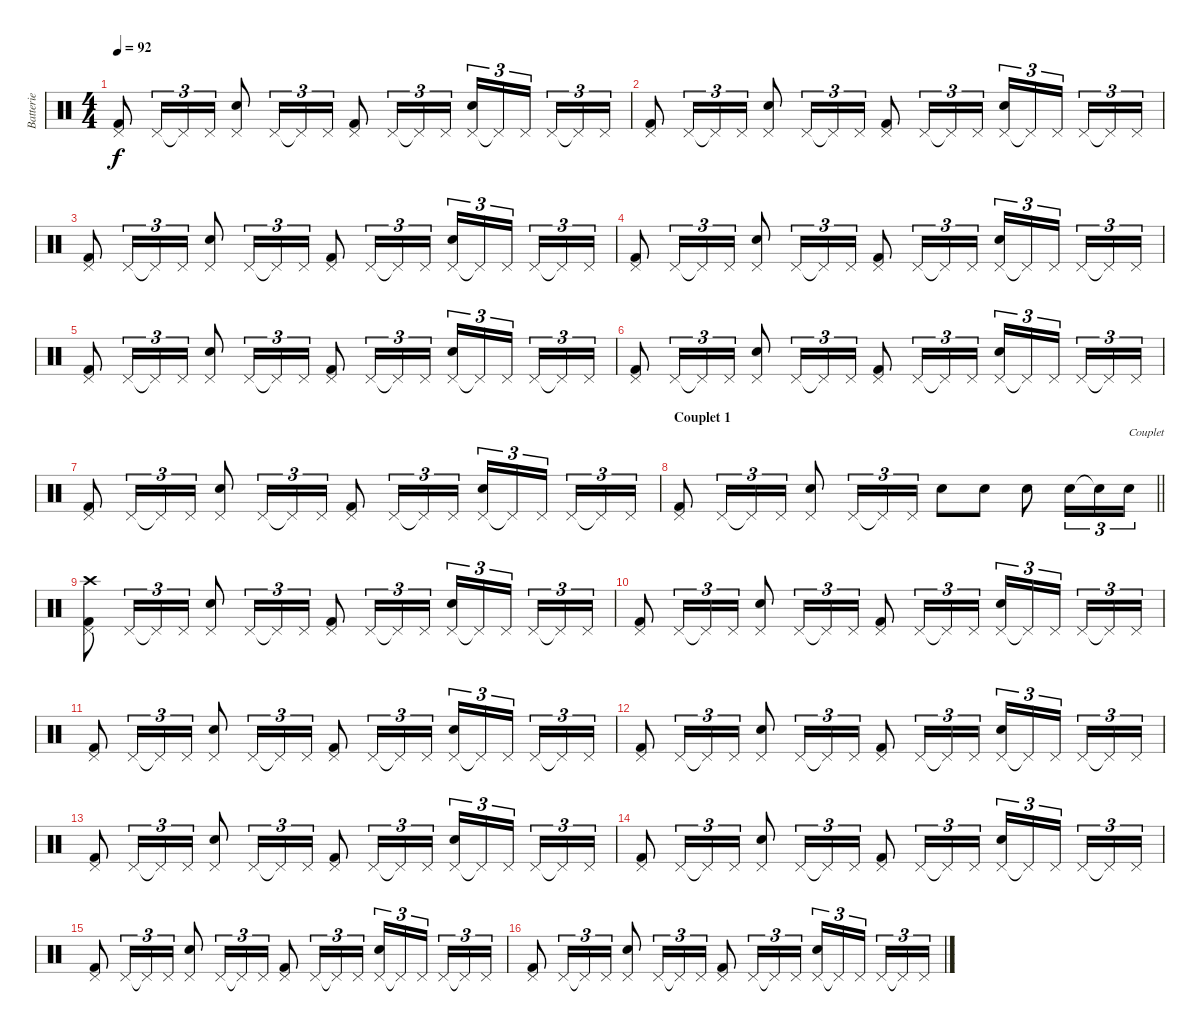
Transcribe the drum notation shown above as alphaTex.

\track ("Batterie" "Batterie") {instrument percussion}
\staff {score}
\articulation defaults
\ts (4 4)
\tempo 92
\clef neutral
\ks c
("Pedal Hi-Hat (hit)" "Kick (hit) 2").8{dy f} "Pedal Hi-Hat (hit)".16{tu (3 2)} "Pedal Hi-Hat (hit)"{t}.16{tu (3 2)} "Pedal Hi-Hat (hit)".16{tu (3 2)} ("Pedal Hi-Hat (hit)" "Electric Snare (hit)").8 "Pedal Hi-Hat (hit)".16{tu (3 2)} "Pedal Hi-Hat (hit)"{t}.16{tu (3 2)} "Pedal Hi-Hat (hit)".16{tu (3 2)} ("Pedal Hi-Hat (hit)" "Kick (hit) 2").8 "Pedal Hi-Hat (hit)".16{tu (3 2)} "Pedal Hi-Hat (hit)"{t}.16{tu (3 2)} "Pedal Hi-Hat (hit)".16{tu (3 2)} ("Pedal Hi-Hat (hit)" "Electric Snare (hit)").16{tu (3 2)} "Pedal Hi-Hat (hit)"{t}.16{tu (3 2)} "Pedal Hi-Hat (hit)".16{tu (3 2)} "Pedal Hi-Hat (hit)".16{tu (3 2)} "Pedal Hi-Hat (hit)"{t}.16{tu (3 2)} "Pedal Hi-Hat (hit)".16{tu (3 2)} |
("Pedal Hi-Hat (hit)" "Kick (hit) 2").8 "Pedal Hi-Hat (hit)".16{tu (3 2)} "Pedal Hi-Hat (hit)"{t}.16{tu (3 2)} "Pedal Hi-Hat (hit)".16{tu (3 2)} ("Pedal Hi-Hat (hit)" "Electric Snare (hit)").8 "Pedal Hi-Hat (hit)".16{tu (3 2)} "Pedal Hi-Hat (hit)"{t}.16{tu (3 2)} "Pedal Hi-Hat (hit)".16{tu (3 2)} ("Pedal Hi-Hat (hit)" "Kick (hit) 2").8 "Pedal Hi-Hat (hit)".16{tu (3 2)} "Pedal Hi-Hat (hit)"{t}.16{tu (3 2)} "Pedal Hi-Hat (hit)".16{tu (3 2)} ("Pedal Hi-Hat (hit)" "Electric Snare (hit)").16{tu (3 2)} "Pedal Hi-Hat (hit)"{t}.16{tu (3 2)} "Pedal Hi-Hat (hit)".16{tu (3 2)} "Pedal Hi-Hat (hit)".16{tu (3 2)} "Pedal Hi-Hat (hit)"{t}.16{tu (3 2)} "Pedal Hi-Hat (hit)".16{tu (3 2)} |
("Pedal Hi-Hat (hit)" "Kick (hit) 2").8 "Pedal Hi-Hat (hit)".16{tu (3 2)} "Pedal Hi-Hat (hit)"{t}.16{tu (3 2)} "Pedal Hi-Hat (hit)".16{tu (3 2)} ("Pedal Hi-Hat (hit)" "Electric Snare (hit)").8 "Pedal Hi-Hat (hit)".16{tu (3 2)} "Pedal Hi-Hat (hit)"{t}.16{tu (3 2)} "Pedal Hi-Hat (hit)".16{tu (3 2)} ("Pedal Hi-Hat (hit)" "Kick (hit) 2").8 "Pedal Hi-Hat (hit)".16{tu (3 2)} "Pedal Hi-Hat (hit)"{t}.16{tu (3 2)} "Pedal Hi-Hat (hit)".16{tu (3 2)} ("Pedal Hi-Hat (hit)" "Electric Snare (hit)").16{tu (3 2)} "Pedal Hi-Hat (hit)"{t}.16{tu (3 2)} "Pedal Hi-Hat (hit)".16{tu (3 2)} "Pedal Hi-Hat (hit)".16{tu (3 2)} "Pedal Hi-Hat (hit)"{t}.16{tu (3 2)} "Pedal Hi-Hat (hit)".16{tu (3 2)} |
("Pedal Hi-Hat (hit)" "Kick (hit) 2").8 "Pedal Hi-Hat (hit)".16{tu (3 2)} "Pedal Hi-Hat (hit)"{t}.16{tu (3 2)} "Pedal Hi-Hat (hit)".16{tu (3 2)} ("Pedal Hi-Hat (hit)" "Electric Snare (hit)").8 "Pedal Hi-Hat (hit)".16{tu (3 2)} "Pedal Hi-Hat (hit)"{t}.16{tu (3 2)} "Pedal Hi-Hat (hit)".16{tu (3 2)} ("Pedal Hi-Hat (hit)" "Kick (hit) 2").8 "Pedal Hi-Hat (hit)".16{tu (3 2)} "Pedal Hi-Hat (hit)"{t}.16{tu (3 2)} "Pedal Hi-Hat (hit)".16{tu (3 2)} ("Pedal Hi-Hat (hit)" "Electric Snare (hit)").16{tu (3 2)} "Pedal Hi-Hat (hit)"{t}.16{tu (3 2)} "Pedal Hi-Hat (hit)".16{tu (3 2)} "Pedal Hi-Hat (hit)".16{tu (3 2)} "Pedal Hi-Hat (hit)"{t}.16{tu (3 2)} "Pedal Hi-Hat (hit)".16{tu (3 2)} |
\section ("" "")
("Pedal Hi-Hat (hit)" "Kick (hit) 2").8 "Pedal Hi-Hat (hit)".16{tu (3 2)} "Pedal Hi-Hat (hit)"{t}.16{tu (3 2)} "Pedal Hi-Hat (hit)".16{tu (3 2)} ("Pedal Hi-Hat (hit)" "Electric Snare (hit)").8 "Pedal Hi-Hat (hit)".16{tu (3 2)} "Pedal Hi-Hat (hit)"{t}.16{tu (3 2)} "Pedal Hi-Hat (hit)".16{tu (3 2)} ("Pedal Hi-Hat (hit)" "Kick (hit) 2").8 "Pedal Hi-Hat (hit)".16{tu (3 2)} "Pedal Hi-Hat (hit)"{t}.16{tu (3 2)} "Pedal Hi-Hat (hit)".16{tu (3 2)} ("Pedal Hi-Hat (hit)" "Electric Snare (hit)").16{tu (3 2)} "Pedal Hi-Hat (hit)"{t}.16{tu (3 2)} "Pedal Hi-Hat (hit)".16{tu (3 2)} "Pedal Hi-Hat (hit)".16{tu (3 2)} "Pedal Hi-Hat (hit)"{t}.16{tu (3 2)} "Pedal Hi-Hat (hit)".16{tu (3 2)} |
("Pedal Hi-Hat (hit)" "Kick (hit) 2").8 "Pedal Hi-Hat (hit)".16{tu (3 2)} "Pedal Hi-Hat (hit)"{t}.16{tu (3 2)} "Pedal Hi-Hat (hit)".16{tu (3 2)} ("Pedal Hi-Hat (hit)" "Electric Snare (hit)").8 "Pedal Hi-Hat (hit)".16{tu (3 2)} "Pedal Hi-Hat (hit)"{t}.16{tu (3 2)} "Pedal Hi-Hat (hit)".16{tu (3 2)} ("Pedal Hi-Hat (hit)" "Kick (hit) 2").8 "Pedal Hi-Hat (hit)".16{tu (3 2)} "Pedal Hi-Hat (hit)"{t}.16{tu (3 2)} "Pedal Hi-Hat (hit)".16{tu (3 2)} ("Pedal Hi-Hat (hit)" "Electric Snare (hit)").16{tu (3 2)} "Pedal Hi-Hat (hit)"{t}.16{tu (3 2)} "Pedal Hi-Hat (hit)".16{tu (3 2)} "Pedal Hi-Hat (hit)".16{tu (3 2)} "Pedal Hi-Hat (hit)"{t}.16{tu (3 2)} "Pedal Hi-Hat (hit)".16{tu (3 2)} |
("Pedal Hi-Hat (hit)" "Kick (hit) 2").8 "Pedal Hi-Hat (hit)".16{tu (3 2)} "Pedal Hi-Hat (hit)"{t}.16{tu (3 2)} "Pedal Hi-Hat (hit)".16{tu (3 2)} ("Pedal Hi-Hat (hit)" "Electric Snare (hit)").8 "Pedal Hi-Hat (hit)".16{tu (3 2)} "Pedal Hi-Hat (hit)"{t}.16{tu (3 2)} "Pedal Hi-Hat (hit)".16{tu (3 2)} ("Pedal Hi-Hat (hit)" "Kick (hit) 2").8 "Pedal Hi-Hat (hit)".16{tu (3 2)} "Pedal Hi-Hat (hit)"{t}.16{tu (3 2)} "Pedal Hi-Hat (hit)".16{tu (3 2)} ("Pedal Hi-Hat (hit)" "Electric Snare (hit)").16{tu (3 2)} "Pedal Hi-Hat (hit)"{t}.16{tu (3 2)} "Pedal Hi-Hat (hit)".16{tu (3 2)} "Pedal Hi-Hat (hit)".16{tu (3 2)} "Pedal Hi-Hat (hit)"{t}.16{tu (3 2)} "Pedal Hi-Hat (hit)".16{tu (3 2)} |
\section ("" "Couplet 1")
\barLineRight lightlight
("Pedal Hi-Hat (hit)" "Kick (hit) 2").8 "Pedal Hi-Hat (hit)".16{tu (3 2)} "Pedal Hi-Hat (hit)"{t}.16{tu (3 2)} "Pedal Hi-Hat (hit)".16{tu (3 2)} ("Pedal Hi-Hat (hit)" "Electric Snare (hit)").8 "Pedal Hi-Hat (hit)".16{tu (3 2)} "Pedal Hi-Hat (hit)"{t}.16{tu (3 2)} "Pedal Hi-Hat (hit)".16{tu (3 2)} "Electric Snare (hit)".8 "Electric Snare (hit)".8 "Electric Snare (hit)".8 "Electric Snare (hit)".16{tu (3 2)} "Electric Snare (hit)"{t}.16{tu (3 2)} "Electric Snare (hit)".16{tu (3 2) txt "Couplet"} |
("Pedal Hi-Hat (hit)" "Crash high (hit)" "Kick (hit) 2").8 "Pedal Hi-Hat (hit)".16{tu (3 2)} "Pedal Hi-Hat (hit)"{t}.16{tu (3 2)} "Pedal Hi-Hat (hit)".16{tu (3 2)} ("Pedal Hi-Hat (hit)" "Electric Snare (hit)").8 "Pedal Hi-Hat (hit)".16{tu (3 2)} "Pedal Hi-Hat (hit)"{t}.16{tu (3 2)} "Pedal Hi-Hat (hit)".16{tu (3 2)} ("Pedal Hi-Hat (hit)" "Kick (hit) 2").8 "Pedal Hi-Hat (hit)".16{tu (3 2)} "Pedal Hi-Hat (hit)"{t}.16{tu (3 2)} "Pedal Hi-Hat (hit)".16{tu (3 2)} ("Pedal Hi-Hat (hit)" "Electric Snare (hit)").16{tu (3 2)} "Pedal Hi-Hat (hit)"{t}.16{tu (3 2)} "Pedal Hi-Hat (hit)".16{tu (3 2)} "Pedal Hi-Hat (hit)".16{tu (3 2)} "Pedal Hi-Hat (hit)"{t}.16{tu (3 2)} "Pedal Hi-Hat (hit)".16{tu (3 2)} |
("Pedal Hi-Hat (hit)" "Kick (hit) 2").8 "Pedal Hi-Hat (hit)".16{tu (3 2)} "Pedal Hi-Hat (hit)"{t}.16{tu (3 2)} "Pedal Hi-Hat (hit)".16{tu (3 2)} ("Pedal Hi-Hat (hit)" "Electric Snare (hit)").8 "Pedal Hi-Hat (hit)".16{tu (3 2)} "Pedal Hi-Hat (hit)"{t}.16{tu (3 2)} "Pedal Hi-Hat (hit)".16{tu (3 2)} ("Pedal Hi-Hat (hit)" "Kick (hit) 2").8 "Pedal Hi-Hat (hit)".16{tu (3 2)} "Pedal Hi-Hat (hit)"{t}.16{tu (3 2)} "Pedal Hi-Hat (hit)".16{tu (3 2)} ("Pedal Hi-Hat (hit)" "Electric Snare (hit)").16{tu (3 2)} "Pedal Hi-Hat (hit)"{t}.16{tu (3 2)} "Pedal Hi-Hat (hit)".16{tu (3 2)} "Pedal Hi-Hat (hit)".16{tu (3 2)} "Pedal Hi-Hat (hit)"{t}.16{tu (3 2)} "Pedal Hi-Hat (hit)".16{tu (3 2)} |
("Pedal Hi-Hat (hit)" "Kick (hit) 2").8 "Pedal Hi-Hat (hit)".16{tu (3 2)} "Pedal Hi-Hat (hit)"{t}.16{tu (3 2)} "Pedal Hi-Hat (hit)".16{tu (3 2)} ("Pedal Hi-Hat (hit)" "Electric Snare (hit)").8 "Pedal Hi-Hat (hit)".16{tu (3 2)} "Pedal Hi-Hat (hit)"{t}.16{tu (3 2)} "Pedal Hi-Hat (hit)".16{tu (3 2)} ("Pedal Hi-Hat (hit)" "Kick (hit) 2").8 "Pedal Hi-Hat (hit)".16{tu (3 2)} "Pedal Hi-Hat (hit)"{t}.16{tu (3 2)} "Pedal Hi-Hat (hit)".16{tu (3 2)} ("Pedal Hi-Hat (hit)" "Electric Snare (hit)").16{tu (3 2)} "Pedal Hi-Hat (hit)"{t}.16{tu (3 2)} "Pedal Hi-Hat (hit)".16{tu (3 2)} "Pedal Hi-Hat (hit)".16{tu (3 2)} "Pedal Hi-Hat (hit)"{t}.16{tu (3 2)} "Pedal Hi-Hat (hit)".16{tu (3 2)} |
("Pedal Hi-Hat (hit)" "Kick (hit) 2").8 "Pedal Hi-Hat (hit)".16{tu (3 2)} "Pedal Hi-Hat (hit)"{t}.16{tu (3 2)} "Pedal Hi-Hat (hit)".16{tu (3 2)} ("Pedal Hi-Hat (hit)" "Electric Snare (hit)").8 "Pedal Hi-Hat (hit)".16{tu (3 2)} "Pedal Hi-Hat (hit)"{t}.16{tu (3 2)} "Pedal Hi-Hat (hit)".16{tu (3 2)} ("Pedal Hi-Hat (hit)" "Kick (hit) 2").8 "Pedal Hi-Hat (hit)".16{tu (3 2)} "Pedal Hi-Hat (hit)"{t}.16{tu (3 2)} "Pedal Hi-Hat (hit)".16{tu (3 2)} ("Pedal Hi-Hat (hit)" "Electric Snare (hit)").16{tu (3 2)} "Pedal Hi-Hat (hit)"{t}.16{tu (3 2)} "Pedal Hi-Hat (hit)".16{tu (3 2)} "Pedal Hi-Hat (hit)".16{tu (3 2)} "Pedal Hi-Hat (hit)"{t}.16{tu (3 2)} "Pedal Hi-Hat (hit)".16{tu (3 2)} |
("Pedal Hi-Hat (hit)" "Kick (hit) 2").8 "Pedal Hi-Hat (hit)".16{tu (3 2)} "Pedal Hi-Hat (hit)"{t}.16{tu (3 2)} "Pedal Hi-Hat (hit)".16{tu (3 2)} ("Pedal Hi-Hat (hit)" "Electric Snare (hit)").8 "Pedal Hi-Hat (hit)".16{tu (3 2)} "Pedal Hi-Hat (hit)"{t}.16{tu (3 2)} "Pedal Hi-Hat (hit)".16{tu (3 2)} ("Pedal Hi-Hat (hit)" "Kick (hit) 2").8 "Pedal Hi-Hat (hit)".16{tu (3 2)} "Pedal Hi-Hat (hit)"{t}.16{tu (3 2)} "Pedal Hi-Hat (hit)".16{tu (3 2)} ("Pedal Hi-Hat (hit)" "Electric Snare (hit)").16{tu (3 2)} "Pedal Hi-Hat (hit)"{t}.16{tu (3 2)} "Pedal Hi-Hat (hit)".16{tu (3 2)} "Pedal Hi-Hat (hit)".16{tu (3 2)} "Pedal Hi-Hat (hit)"{t}.16{tu (3 2)} "Pedal Hi-Hat (hit)".16{tu (3 2)} |
("Pedal Hi-Hat (hit)" "Kick (hit) 2").8 "Pedal Hi-Hat (hit)".16{tu (3 2)} "Pedal Hi-Hat (hit)"{t}.16{tu (3 2)} "Pedal Hi-Hat (hit)".16{tu (3 2)} ("Pedal Hi-Hat (hit)" "Electric Snare (hit)").8 "Pedal Hi-Hat (hit)".16{tu (3 2)} "Pedal Hi-Hat (hit)"{t}.16{tu (3 2)} "Pedal Hi-Hat (hit)".16{tu (3 2)} ("Pedal Hi-Hat (hit)" "Kick (hit) 2").8 "Pedal Hi-Hat (hit)".16{tu (3 2)} "Pedal Hi-Hat (hit)"{t}.16{tu (3 2)} "Pedal Hi-Hat (hit)".16{tu (3 2)} ("Pedal Hi-Hat (hit)" "Electric Snare (hit)").16{tu (3 2)} "Pedal Hi-Hat (hit)"{t}.16{tu (3 2)} "Pedal Hi-Hat (hit)".16{tu (3 2)} "Pedal Hi-Hat (hit)".16{tu (3 2)} "Pedal Hi-Hat (hit)"{t}.16{tu (3 2)} "Pedal Hi-Hat (hit)".16{tu (3 2)} |
("Pedal Hi-Hat (hit)" "Kick (hit) 2").8 "Pedal Hi-Hat (hit)".16{tu (3 2)} "Pedal Hi-Hat (hit)"{t}.16{tu (3 2)} "Pedal Hi-Hat (hit)".16{tu (3 2)} ("Pedal Hi-Hat (hit)" "Electric Snare (hit)").8 "Pedal Hi-Hat (hit)".16{tu (3 2)} "Pedal Hi-Hat (hit)"{t}.16{tu (3 2)} "Pedal Hi-Hat (hit)".16{tu (3 2)} ("Pedal Hi-Hat (hit)" "Kick (hit) 2").8 "Pedal Hi-Hat (hit)".16{tu (3 2)} "Pedal Hi-Hat (hit)"{t}.16{tu (3 2)} "Pedal Hi-Hat (hit)".16{tu (3 2)} ("Pedal Hi-Hat (hit)" "Electric Snare (hit)").16{tu (3 2)} "Pedal Hi-Hat (hit)"{t}.16{tu (3 2)} "Pedal Hi-Hat (hit)".16{tu (3 2)} "Pedal Hi-Hat (hit)".16{tu (3 2)} "Pedal Hi-Hat (hit)"{t}.16{tu (3 2)} "Pedal Hi-Hat (hit)".16{tu (3 2)} |
("Pedal Hi-Hat (hit)" "Kick (hit) 2").8 "Pedal Hi-Hat (hit)".16{tu (3 2)} "Pedal Hi-Hat (hit)"{t}.16{tu (3 2)} "Pedal Hi-Hat (hit)".16{tu (3 2)} ("Pedal Hi-Hat (hit)" "Electric Snare (hit)").8 "Pedal Hi-Hat (hit)".16{tu (3 2)} "Pedal Hi-Hat (hit)"{t}.16{tu (3 2)} "Pedal Hi-Hat (hit)".16{tu (3 2)} ("Pedal Hi-Hat (hit)" "Kick (hit) 2").8 "Pedal Hi-Hat (hit)".16{tu (3 2)} "Pedal Hi-Hat (hit)"{t}.16{tu (3 2)} "Pedal Hi-Hat (hit)".16{tu (3 2)} ("Pedal Hi-Hat (hit)" "Electric Snare (hit)").16{tu (3 2)} "Pedal Hi-Hat (hit)"{t}.16{tu (3 2)} "Pedal Hi-Hat (hit)".16{tu (3 2)} "Pedal Hi-Hat (hit)".16{tu (3 2)} "Pedal Hi-Hat (hit)"{t}.16{tu (3 2)} "Pedal Hi-Hat (hit)".16{tu (3 2)}
